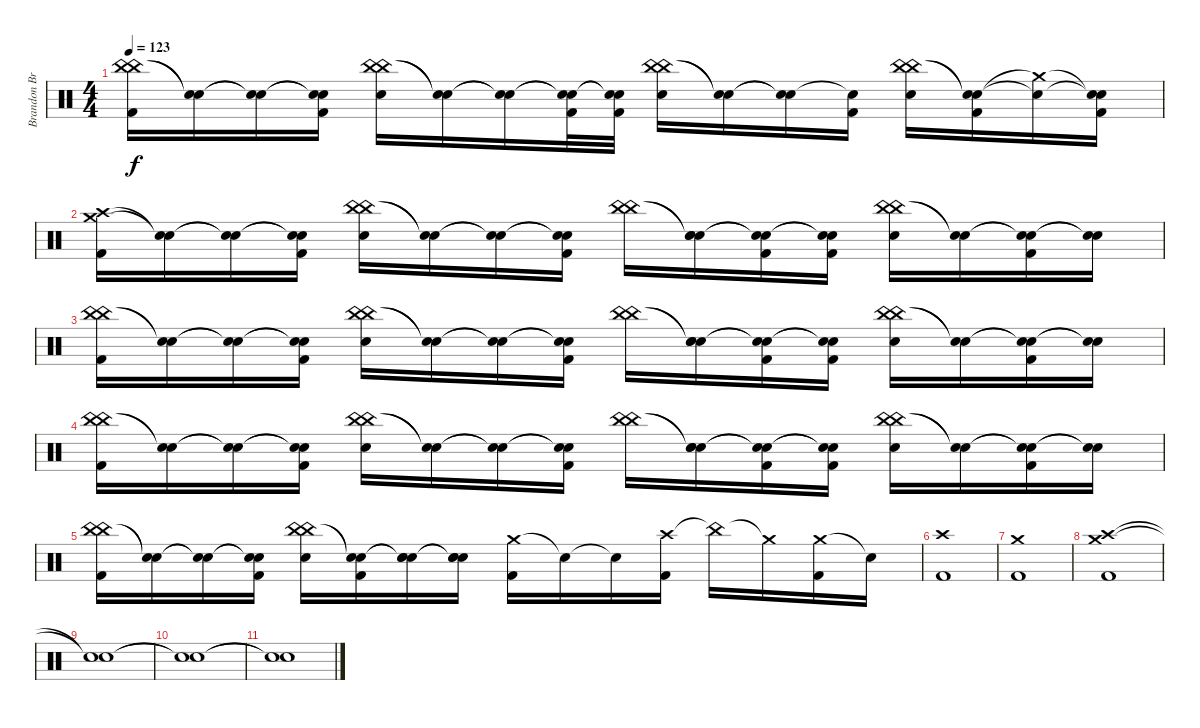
\track ("Brandon Brown (Drums)" "Brandon Br") {instrument percussion}
\staff {score}
\articulation defaults
\ts (4 4)
\tempo 123
\clef neutral
\ks c
("China (hit)" "China (hit)" "Kick (hit) 2").16{dy f} ("Snare (hit)"{t} "Snare (hit)"{t}).16 ("Snare (hit)"{t} "Snare (hit)"{t}).16 ("Snare (hit)"{t} "Snare (hit)"{t} "Kick (hit) 2").16 ("China (hit)" "China (hit)" "Electric Snare (hit)").16 ("Snare (hit)"{t} "Snare (hit)"{t}).16 ("Snare (hit)"{t} "Snare (hit)"{t}).16 ("Snare (hit)"{t} "Snare (hit)"{t} "Kick (hit) 2").32 ("Snare (hit)"{t} "Snare (hit)"{t} "Kick (hit) 2").32 ("China (hit)" "China (hit)" "Electric Snare (hit)").16 ("Snare (hit)"{t} "Snare (hit)"{t}).16 ("Snare (hit)"{t} "Snare (hit)"{t}).16 ("Snare (hit)"{t} "Kick (hit) 2").16 ("China (hit)" "China (hit)" "Electric Snare (hit)").16 ("Snare (hit)"{t} "Snare (hit)"{t} "Kick (hit) 2").16 ("Crash medium (hit)"{t} "Snare (hit)"{t}).16 ("Snare (hit)"{t} "Snare (hit)"{t} "Kick (hit) 2").16 |
("Crash high (hit)" "Crash medium (hit)" "Kick (hit) 2").16 ("Snare (hit)"{t} "Snare (hit)"{t}).16 ("Snare (hit)"{t} "Snare (hit)"{t}).16 ("Snare (hit)"{t} "Snare (hit)"{t} "Kick (hit) 2").16 ("China (hit)" "China (hit)" "Electric Snare (hit)").16 ("Snare (hit)"{t} "Snare (hit)"{t}).16 ("Snare (hit)"{t} "Snare (hit)"{t}).16 ("Snare (hit)"{t} "Snare (hit)"{t} "Kick (hit) 2").16 ("China (hit)" "China (hit)").16 ("Snare (hit)"{t} "Snare (hit)"{t} "Electric Snare (hit)").16 ("Snare (hit)"{t} "Snare (hit)"{t} "Kick (hit) 2").16 ("Snare (hit)"{t} "Snare (hit)"{t} "Kick (hit) 2").16 ("China (hit)" "China (hit)" "Electric Snare (hit)").16 ("Snare (hit)"{t} "Snare (hit)"{t}).16 ("Snare (hit)"{t} "Snare (hit)"{t} "Kick (hit) 2").16 ("Snare (hit)"{t} "Snare (hit)"{t}).16 |
("China (hit)" "China (hit)" "Kick (hit) 2").16 ("Snare (hit)"{t} "Snare (hit)"{t}).16 ("Snare (hit)"{t} "Snare (hit)"{t}).16 ("Snare (hit)"{t} "Snare (hit)"{t} "Kick (hit) 2").16 ("China (hit)" "China (hit)" "Electric Snare (hit)").16 ("Snare (hit)"{t} "Snare (hit)"{t}).16 ("Snare (hit)"{t} "Snare (hit)"{t}).16 ("Snare (hit)"{t} "Snare (hit)"{t} "Kick (hit) 2").16 ("China (hit)" "China (hit)").16 ("Snare (hit)"{t} "Snare (hit)"{t} "Electric Snare (hit)").16 ("Snare (hit)"{t} "Snare (hit)"{t} "Kick (hit) 2").16 ("Snare (hit)"{t} "Snare (hit)"{t} "Kick (hit) 2").16 ("China (hit)" "China (hit)" "Electric Snare (hit)").16 ("Snare (hit)"{t} "Snare (hit)"{t}).16 ("Snare (hit)"{t} "Snare (hit)"{t} "Kick (hit) 2").16 ("Snare (hit)"{t} "Snare (hit)"{t}).16 |
("China (hit)" "China (hit)" "Kick (hit) 2").16 ("Snare (hit)"{t} "Snare (hit)"{t}).16 ("Snare (hit)"{t} "Snare (hit)"{t}).16 ("Snare (hit)"{t} "Snare (hit)"{t} "Kick (hit) 2").16 ("China (hit)" "China (hit)" "Electric Snare (hit)").16 ("Snare (hit)"{t} "Snare (hit)"{t}).16 ("Snare (hit)"{t} "Snare (hit)"{t}).16 ("Snare (hit)"{t} "Snare (hit)"{t} "Kick (hit) 2").16 ("China (hit)" "China (hit)").16 ("Snare (hit)"{t} "Snare (hit)"{t} "Electric Snare (hit)").16 ("Snare (hit)"{t} "Snare (hit)"{t} "Kick (hit) 2").16 ("Snare (hit)"{t} "Snare (hit)"{t} "Kick (hit) 2").16 ("China (hit)" "China (hit)" "Electric Snare (hit)").16 ("Snare (hit)"{t} "Snare (hit)"{t}).16 ("Snare (hit)"{t} "Snare (hit)"{t} "Kick (hit) 2").16 ("Snare (hit)"{t} "Snare (hit)"{t}).16 |
("China (hit)" "China (hit)" "Kick (hit) 2").16 ("Snare (hit)"{t} "Snare (hit)"{t}).16 ("Snare (hit)"{t} "Snare (hit)"{t}).16 ("Snare (hit)"{t} "Snare (hit)"{t} "Kick (hit) 2").16 ("China (hit)" "China (hit)" "Electric Snare (hit)").16 ("Snare (hit)"{t} "Snare (hit)"{t} "Kick (hit) 2").16 ("Snare (hit)"{t} "Snare (hit)"{t} "Electric Snare (hit)").16 ("Snare (hit)"{t} "Snare (hit)"{t} "Electric Snare (hit)").16 ("Crash medium (hit)" "Kick (hit) 2").16 "Snare (hit)"{t}.16 "Snare (hit)"{t}.16 ("Crash high (hit)" "Kick (hit) 2").16 "China (hit)"{t}.16 "Crash medium (hit)"{t}.16 ("Crash medium (hit)" "Kick (hit) 2").16 "Snare (hit)"{t}.16 |
("Crash high (hit)" "Kick (hit) 2").1 |
("Crash medium (hit)" "Kick (hit) 2").1 |
("Crash high (hit)" "Crash medium (hit)" "Kick (hit) 2").1 |
("Snare (hit)"{t} "Snare (hit)"{t}).1 |
("Snare (hit)"{t} "Snare (hit)"{t}).1 |
("Snare (hit)"{t} "Snare (hit)"{t}).1
